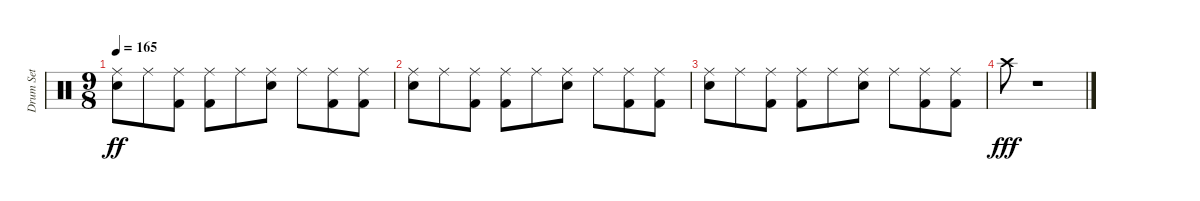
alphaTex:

\track ("Drum Set" "Drum Set") {instrument percussion}
\staff {score}
\articulation defaults
\ts (9 8)
\tempo 165
\clef neutral
\ks c
("Snare (hit) 2" "Ride (middle)").8{dy ff} "Ride (middle)".8 ("Kick (hit) 2" "Ride (middle)").8 ("Kick (hit) 2" "Ride (middle)").8 "Ride (middle)".8 ("Snare (hit) 2" "Ride (middle)").8 "Ride (middle)".8 ("Kick (hit) 2" "Ride (middle)").8 ("Kick (hit) 2" "Ride (middle)").8 |
("Snare (hit) 2" "Ride (middle)").8 "Ride (middle)".8 ("Kick (hit) 2" "Ride (middle)").8 ("Kick (hit) 2" "Ride (middle)").8 "Ride (middle)".8 ("Snare (hit) 2" "Ride (middle)").8 "Ride (middle)".8 ("Kick (hit) 2" "Ride (middle)").8 ("Kick (hit) 2" "Ride (middle)").8 |
("Snare (hit) 2" "Ride (middle)").8 "Ride (middle)".8 ("Kick (hit) 2" "Ride (middle)").8 ("Kick (hit) 2" "Ride (middle)").8 "Ride (middle)".8 ("Snare (hit) 2" "Ride (middle)").8 "Ride (middle)".8 ("Kick (hit) 2" "Ride (middle)").8 ("Kick (hit) 2" "Ride (middle)").8 |
"Crash high (hit)".8{dy fff} r.1
